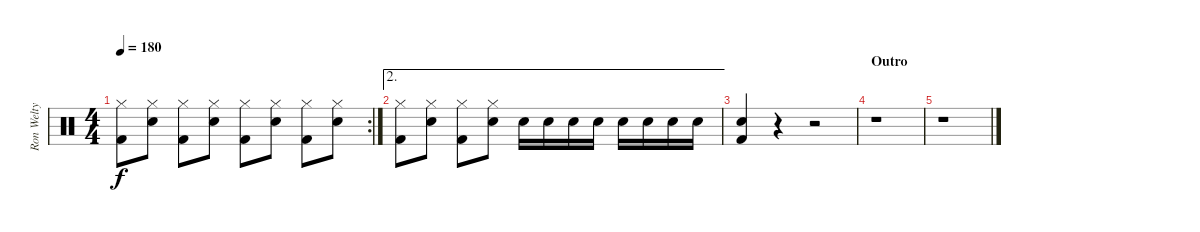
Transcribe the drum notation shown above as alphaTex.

\track ("Ron Welty" "Ron Welty") {instrument percussion}
\staff {score}
\articulation defaults
\rc 2
\ts (4 4)
\tempo 180
\clef neutral
\ks c
("Hi-Hat (closed)" "Kick (hit) 2").8{dy f} ("Hi-Hat (closed)" "Electric Snare (hit)").8 ("Hi-Hat (closed)" "Kick (hit) 2").8 ("Hi-Hat (closed)" "Electric Snare (hit)").8 ("Hi-Hat (closed)" "Kick (hit) 2").8 ("Hi-Hat (closed)" "Electric Snare (hit)").8 ("Hi-Hat (closed)" "Kick (hit) 2").8 ("Hi-Hat (closed)" "Electric Snare (hit)").8 |
\ae 2
("Hi-Hat (closed)" "Kick (hit) 2").8 ("Hi-Hat (closed)" "Electric Snare (hit)").8 ("Hi-Hat (closed)" "Kick (hit) 2").8 ("Hi-Hat (closed)" "Electric Snare (hit)").8 "Electric Snare (hit)".16 "Electric Snare (hit)".16 "Electric Snare (hit)".16 "Electric Snare (hit)".16 "Electric Snare (hit)".16 "Electric Snare (hit)".16 "Electric Snare (hit)".16 "Electric Snare (hit)".16 |
("Electric Snare (hit)" "Kick (hit) 2").4 r.4 r.2 |
\section ("" "Outro")
r.1 |
r.1
